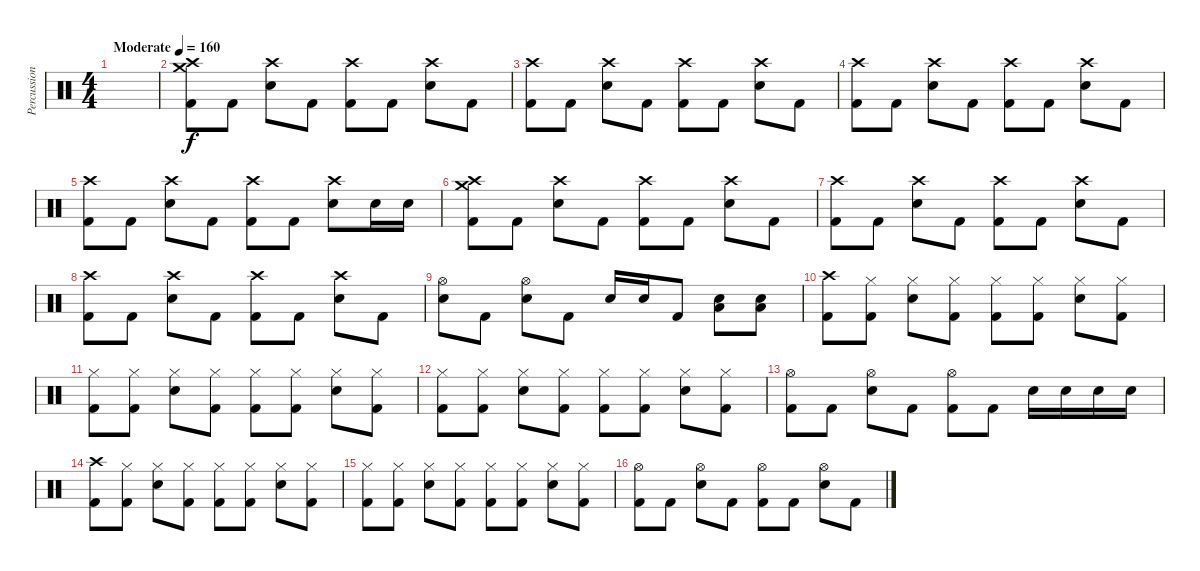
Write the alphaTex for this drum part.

\track ("Percussion" "Percussion") {instrument percussion}
\staff {score}
\articulation defaults
\ts (4 4)
\tempo (160 "Moderate")
\clef neutral
\ks c
|
("Crash medium (hit)" "Crash high (hit)" "Kick (hit) 2").8 "Kick (hit) 2".8 ("Crash high (hit)" "Snare (hit) 2").8 "Kick (hit) 2".8 ("Crash high (hit)" "Kick (hit) 2").8 "Kick (hit) 2".8 ("Crash high (hit)" "Snare (hit) 2").8 "Kick (hit) 2".8 |
("Crash high (hit)" "Kick (hit) 2").8 "Kick (hit) 2".8 ("Crash high (hit)" "Snare (hit) 2").8 "Kick (hit) 2".8 ("Crash high (hit)" "Kick (hit) 2").8 "Kick (hit) 2".8 ("Crash high (hit)" "Snare (hit) 2").8 "Kick (hit) 2".8 |
("Crash high (hit)" "Kick (hit) 2").8 "Kick (hit) 2".8 ("Crash high (hit)" "Snare (hit) 2").8 "Kick (hit) 2".8 ("Crash high (hit)" "Kick (hit) 2").8 "Kick (hit) 2".8 ("Crash high (hit)" "Snare (hit) 2").8 "Kick (hit) 2".8 |
("Crash high (hit)" "Kick (hit) 2").8 "Kick (hit) 2".8 ("Crash high (hit)" "Snare (hit) 2").8 "Kick (hit) 2".8 ("Crash high (hit)" "Kick (hit) 2").8 "Kick (hit) 2".8 ("Crash high (hit)" "Snare (hit) 2").8 "Snare (hit) 2".16 "Snare (hit) 2".16 |
("Crash medium (hit)" "Crash high (hit)" "Kick (hit) 2").8 "Kick (hit) 2".8 ("Crash high (hit)" "Snare (hit) 2").8 "Kick (hit) 2".8 ("Crash high (hit)" "Kick (hit) 2").8 "Kick (hit) 2".8 ("Crash high (hit)" "Snare (hit) 2").8 "Kick (hit) 2".8 |
("Crash high (hit)" "Kick (hit) 2").8 "Kick (hit) 2".8 ("Crash high (hit)" "Snare (hit) 2").8 "Kick (hit) 2".8 ("Crash high (hit)" "Kick (hit) 2").8 "Kick (hit) 2".8 ("Crash high (hit)" "Snare (hit) 2").8 "Kick (hit) 2".8 |
("Crash high (hit)" "Kick (hit) 2").8 "Kick (hit) 2".8 ("Crash high (hit)" "Snare (hit) 2").8 "Kick (hit) 2".8 ("Crash high (hit)" "Kick (hit) 2").8 "Kick (hit) 2".8 ("Crash high (hit)" "Snare (hit) 2").8 "Kick (hit) 2".8 |
("Hi-Hat (open)" "Snare (hit) 2").8 "Kick (hit) 2".8 ("Hi-Hat (open)" "Snare (hit) 2").8 "Kick (hit) 2".8 "Snare (hit) 2".16 "Snare (hit) 2".16 "Kick (hit) 2".8 ("Low Floor Tom (hit)" "Snare (hit) 2").8 ("Low Floor Tom (hit)" "Snare (hit) 2").8 |
("Crash high (hit)" "Kick (hit) 2").8 ("Hi-Hat (closed)" "Kick (hit) 2").8 ("Hi-Hat (closed)" "Snare (hit) 2").8 ("Hi-Hat (closed)" "Kick (hit) 2").8 ("Hi-Hat (closed)" "Kick (hit) 2").8 ("Hi-Hat (closed)" "Kick (hit) 2").8 ("Hi-Hat (closed)" "Snare (hit) 2").8 ("Hi-Hat (closed)" "Kick (hit) 2").8 |
("Hi-Hat (closed)" "Kick (hit) 2").8 ("Hi-Hat (closed)" "Kick (hit) 2").8 ("Hi-Hat (closed)" "Snare (hit) 2").8 ("Hi-Hat (closed)" "Kick (hit) 2").8 ("Hi-Hat (closed)" "Kick (hit) 2").8 ("Hi-Hat (closed)" "Kick (hit) 2").8 ("Hi-Hat (closed)" "Snare (hit) 2").8 ("Hi-Hat (closed)" "Kick (hit) 2").8 |
("Hi-Hat (closed)" "Kick (hit) 2").8 ("Hi-Hat (closed)" "Kick (hit) 2").8 ("Hi-Hat (closed)" "Snare (hit) 2").8 ("Hi-Hat (closed)" "Kick (hit) 2").8 ("Hi-Hat (closed)" "Kick (hit) 2").8 ("Hi-Hat (closed)" "Kick (hit) 2").8 ("Hi-Hat (closed)" "Snare (hit) 2").8 ("Hi-Hat (closed)" "Kick (hit) 2").8 |
("Hi-Hat (open)" "Kick (hit) 2").8 "Kick (hit) 2".8 ("Hi-Hat (open)" "Snare (hit) 2").8 "Kick (hit) 2".8 ("Hi-Hat (open)" "Kick (hit) 2").8 "Kick (hit) 2".8 "Snare (hit) 2".16 "Snare (hit) 2".16 "Snare (hit) 2".16 "Snare (hit) 2".16 |
("Crash high (hit)" "Kick (hit) 2").8 ("Hi-Hat (closed)" "Kick (hit) 2").8 ("Hi-Hat (closed)" "Snare (hit) 2").8 ("Hi-Hat (closed)" "Kick (hit) 2").8 ("Hi-Hat (closed)" "Kick (hit) 2").8 ("Hi-Hat (closed)" "Kick (hit) 2").8 ("Hi-Hat (closed)" "Snare (hit) 2").8 ("Hi-Hat (closed)" "Kick (hit) 2").8 |
("Hi-Hat (closed)" "Kick (hit) 2").8 ("Hi-Hat (closed)" "Kick (hit) 2").8 ("Hi-Hat (closed)" "Snare (hit) 2").8 ("Hi-Hat (closed)" "Kick (hit) 2").8 ("Hi-Hat (closed)" "Kick (hit) 2").8 ("Hi-Hat (closed)" "Kick (hit) 2").8 ("Hi-Hat (closed)" "Snare (hit) 2").8 ("Hi-Hat (closed)" "Kick (hit) 2").8 |
("Hi-Hat (open)" "Kick (hit) 2").8 "Kick (hit) 2".8 ("Hi-Hat (open)" "Snare (hit) 2").8 "Kick (hit) 2".8 ("Hi-Hat (open)" "Kick (hit) 2").8 "Kick (hit) 2".8 ("Hi-Hat (open)" "Snare (hit) 2").8 "Kick (hit) 2".8
